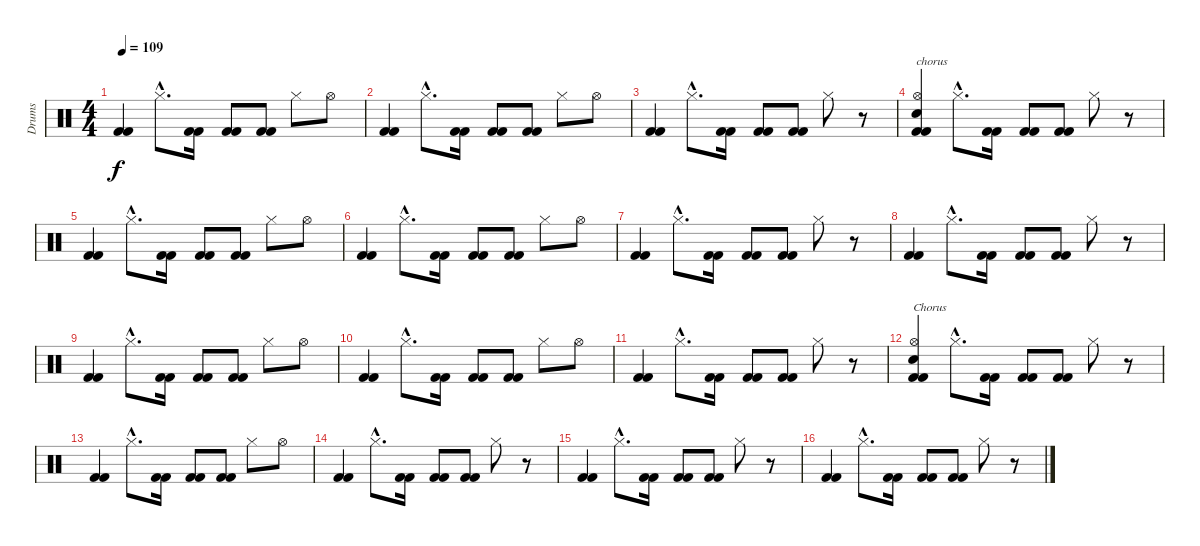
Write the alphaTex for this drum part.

\track ("Drums" "Drums") {instrument percussion}
\staff {score}
\articulation defaults
\ts (4 4)
\tempo 109
\clef neutral
\ks c
("Kick (hit) 2" "Kick (hit) 2").4{dy f} "Hi-Hat (closed)"{hac}.8{d} ("Kick (hit) 2" "Kick (hit) 2").16 ("Kick (hit) 2" "Kick (hit) 2").8 ("Kick (hit) 2" "Kick (hit) 2").8 "Hi-Hat (closed)".8 "Hi-Hat (open)".8 |
("Kick (hit) 2" "Kick (hit) 2").4 "Hi-Hat (closed)"{hac}.8{d} ("Kick (hit) 2" "Kick (hit) 2").16 ("Kick (hit) 2" "Kick (hit) 2").8 ("Kick (hit) 2" "Kick (hit) 2").8 "Hi-Hat (closed)".8 "Hi-Hat (open)".8 |
("Kick (hit) 2" "Kick (hit) 2").4 "Hi-Hat (closed)"{hac}.8{d} ("Kick (hit) 2" "Kick (hit) 2").16 ("Kick (hit) 2" "Kick (hit) 2").8 ("Kick (hit) 2" "Kick (hit) 2").8 "Hi-Hat (closed)".8 r.8 |
("Snare (hit) 2" "Hi-Hat (open)" "Kick (hit) 2" "Kick (hit) 2").4{txt "chorus" volume 9} "Hi-Hat (closed)"{hac}.8{d} ("Kick (hit) 2" "Kick (hit) 2").16 ("Kick (hit) 2" "Kick (hit) 2").8 ("Kick (hit) 2" "Kick (hit) 2").8 "Hi-Hat (closed)".8 r.8 |
("Kick (hit) 2" "Kick (hit) 2").4 "Hi-Hat (closed)"{hac}.8{d} ("Kick (hit) 2" "Kick (hit) 2").16 ("Kick (hit) 2" "Kick (hit) 2").8 ("Kick (hit) 2" "Kick (hit) 2").8 "Hi-Hat (closed)".8 "Hi-Hat (open)".8 |
("Kick (hit) 2" "Kick (hit) 2").4 "Hi-Hat (closed)"{hac}.8{d} ("Kick (hit) 2" "Kick (hit) 2").16 ("Kick (hit) 2" "Kick (hit) 2").8 ("Kick (hit) 2" "Kick (hit) 2").8 "Hi-Hat (closed)".8 "Hi-Hat (open)".8 |
("Kick (hit) 2" "Kick (hit) 2").4 "Hi-Hat (closed)"{hac}.8{d} ("Kick (hit) 2" "Kick (hit) 2").16 ("Kick (hit) 2" "Kick (hit) 2").8 ("Kick (hit) 2" "Kick (hit) 2").8 "Hi-Hat (closed)".8 r.8 |
("Kick (hit) 2" "Kick (hit) 2").4 "Hi-Hat (closed)"{hac}.8{d} ("Kick (hit) 2" "Kick (hit) 2").16 ("Kick (hit) 2" "Kick (hit) 2").8 ("Kick (hit) 2" "Kick (hit) 2").8 "Hi-Hat (closed)".8 r.8 |
("Kick (hit) 2" "Kick (hit) 2").4 "Hi-Hat (closed)"{hac}.8{d} ("Kick (hit) 2" "Kick (hit) 2").16 ("Kick (hit) 2" "Kick (hit) 2").8 ("Kick (hit) 2" "Kick (hit) 2").8 "Hi-Hat (closed)".8 "Hi-Hat (open)".8 |
("Kick (hit) 2" "Kick (hit) 2").4 "Hi-Hat (closed)"{hac}.8{d} ("Kick (hit) 2" "Kick (hit) 2").16 ("Kick (hit) 2" "Kick (hit) 2").8 ("Kick (hit) 2" "Kick (hit) 2").8 "Hi-Hat (closed)".8 "Hi-Hat (open)".8 |
("Kick (hit) 2" "Kick (hit) 2").4 "Hi-Hat (closed)"{hac}.8{d} ("Kick (hit) 2" "Kick (hit) 2").16 ("Kick (hit) 2" "Kick (hit) 2").8 ("Kick (hit) 2" "Kick (hit) 2").8 "Hi-Hat (closed)".8 r.8 |
("Hi-Hat (open)" "Snare (hit) 2" "Kick (hit) 2" "Kick (hit) 2").4{txt "Chorus" volume 9} "Hi-Hat (closed)"{hac}.8{d} ("Kick (hit) 2" "Kick (hit) 2").16 ("Kick (hit) 2" "Kick (hit) 2").8 ("Kick (hit) 2" "Kick (hit) 2").8 "Hi-Hat (closed)".8 r.8 |
("Kick (hit) 2" "Kick (hit) 2").4 "Hi-Hat (closed)"{hac}.8{d} ("Kick (hit) 2" "Kick (hit) 2").16 ("Kick (hit) 2" "Kick (hit) 2").8 ("Kick (hit) 2" "Kick (hit) 2").8 "Hi-Hat (closed)".8 "Hi-Hat (open)".8 |
("Kick (hit) 2" "Kick (hit) 2").4 "Hi-Hat (closed)"{hac}.8{d} ("Kick (hit) 2" "Kick (hit) 2").16 ("Kick (hit) 2" "Kick (hit) 2").8 ("Kick (hit) 2" "Kick (hit) 2").8 "Hi-Hat (closed)".8 r.8 |
("Kick (hit) 2" "Kick (hit) 2").4 "Hi-Hat (closed)"{hac}.8{d} ("Kick (hit) 2" "Kick (hit) 2").16 ("Kick (hit) 2" "Kick (hit) 2").8 ("Kick (hit) 2" "Kick (hit) 2").8 "Hi-Hat (closed)".8 r.8 |
("Kick (hit) 2" "Kick (hit) 2").4 "Hi-Hat (closed)"{hac}.8{d} ("Kick (hit) 2" "Kick (hit) 2").16 ("Kick (hit) 2" "Kick (hit) 2").8 ("Kick (hit) 2" "Kick (hit) 2").8 "Hi-Hat (closed)".8 r.8
